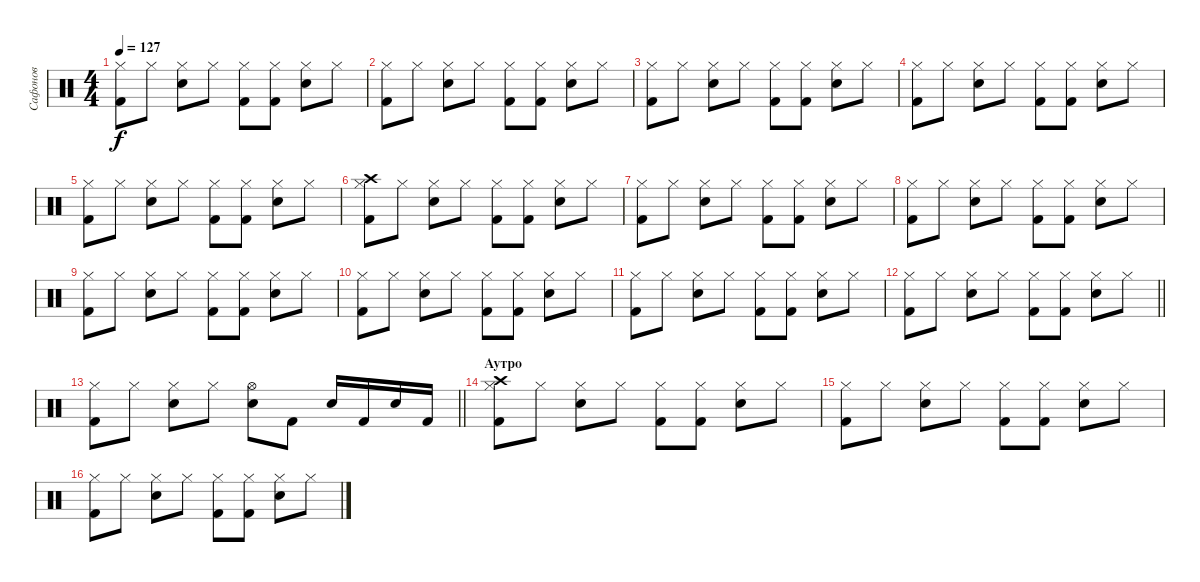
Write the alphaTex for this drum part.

\track ("Сафонов" "Сафонов") {instrument percussion}
\staff {score}
\articulation defaults
\ts (4 4)
\tempo 127
\clef neutral
\ks c
("Hi-Hat (closed)" "Kick (hit) 2").8{dy f} "Hi-Hat (closed)".8 ("Hi-Hat (closed)" "Electric Snare (hit)").8 "Hi-Hat (closed)".8 ("Hi-Hat (closed)" "Kick (hit) 2").8 ("Hi-Hat (closed)" "Kick (hit) 2").8 ("Hi-Hat (closed)" "Electric Snare (hit)").8 "Hi-Hat (closed)".8 |
("Hi-Hat (closed)" "Kick (hit) 2").8 "Hi-Hat (closed)".8 ("Hi-Hat (closed)" "Electric Snare (hit)").8 "Hi-Hat (closed)".8 ("Hi-Hat (closed)" "Kick (hit) 2").8 ("Hi-Hat (closed)" "Kick (hit) 2").8 ("Hi-Hat (closed)" "Electric Snare (hit)").8 "Hi-Hat (closed)".8 |
("Hi-Hat (closed)" "Kick (hit) 2").8 "Hi-Hat (closed)".8 ("Hi-Hat (closed)" "Electric Snare (hit)").8 "Hi-Hat (closed)".8 ("Hi-Hat (closed)" "Kick (hit) 2").8 ("Hi-Hat (closed)" "Kick (hit) 2").8 ("Hi-Hat (closed)" "Electric Snare (hit)").8 "Hi-Hat (closed)".8 |
("Hi-Hat (closed)" "Kick (hit) 2").8 "Hi-Hat (closed)".8 ("Hi-Hat (closed)" "Electric Snare (hit)").8 "Hi-Hat (closed)".8 ("Hi-Hat (closed)" "Kick (hit) 2").8 ("Hi-Hat (closed)" "Kick (hit) 2").8 ("Hi-Hat (closed)" "Electric Snare (hit)").8 "Hi-Hat (closed)".8 |
("Hi-Hat (closed)" "Kick (hit) 2").8 "Hi-Hat (closed)".8 ("Hi-Hat (closed)" "Electric Snare (hit)").8 "Hi-Hat (closed)".8 ("Hi-Hat (closed)" "Kick (hit) 2").8 ("Hi-Hat (closed)" "Kick (hit) 2").8 ("Hi-Hat (closed)" "Electric Snare (hit)").8 "Hi-Hat (closed)".8 |
("Crash high (hit)" "Hi-Hat (closed)" "Kick (hit) 2").8 "Hi-Hat (closed)".8 ("Hi-Hat (closed)" "Electric Snare (hit)").8 "Hi-Hat (closed)".8 ("Hi-Hat (closed)" "Kick (hit) 2").8 ("Hi-Hat (closed)" "Kick (hit) 2").8 ("Hi-Hat (closed)" "Electric Snare (hit)").8 "Hi-Hat (closed)".8 |
("Hi-Hat (closed)" "Kick (hit) 2").8 "Hi-Hat (closed)".8 ("Hi-Hat (closed)" "Electric Snare (hit)").8 "Hi-Hat (closed)".8 ("Hi-Hat (closed)" "Kick (hit) 2").8 ("Hi-Hat (closed)" "Kick (hit) 2").8 ("Hi-Hat (closed)" "Electric Snare (hit)").8 "Hi-Hat (closed)".8 |
("Hi-Hat (closed)" "Kick (hit) 2").8 "Hi-Hat (closed)".8 ("Hi-Hat (closed)" "Electric Snare (hit)").8 "Hi-Hat (closed)".8 ("Hi-Hat (closed)" "Kick (hit) 2").8 ("Hi-Hat (closed)" "Kick (hit) 2").8 ("Hi-Hat (closed)" "Electric Snare (hit)").8 "Hi-Hat (closed)".8 |
("Hi-Hat (closed)" "Kick (hit) 2").8 "Hi-Hat (closed)".8 ("Hi-Hat (closed)" "Electric Snare (hit)").8 "Hi-Hat (closed)".8 ("Hi-Hat (closed)" "Kick (hit) 2").8 ("Hi-Hat (closed)" "Kick (hit) 2").8 ("Hi-Hat (closed)" "Electric Snare (hit)").8 "Hi-Hat (closed)".8 |
("Hi-Hat (closed)" "Kick (hit) 2").8 "Hi-Hat (closed)".8 ("Hi-Hat (closed)" "Electric Snare (hit)").8 "Hi-Hat (closed)".8 ("Hi-Hat (closed)" "Kick (hit) 2").8 ("Hi-Hat (closed)" "Kick (hit) 2").8 ("Hi-Hat (closed)" "Electric Snare (hit)").8 "Hi-Hat (closed)".8 |
("Hi-Hat (closed)" "Kick (hit) 2").8 "Hi-Hat (closed)".8 ("Hi-Hat (closed)" "Electric Snare (hit)").8 "Hi-Hat (closed)".8 ("Hi-Hat (closed)" "Kick (hit) 2").8 ("Hi-Hat (closed)" "Kick (hit) 2").8 ("Hi-Hat (closed)" "Electric Snare (hit)").8 "Hi-Hat (closed)".8 |
\barLineRight lightlight
("Hi-Hat (closed)" "Kick (hit) 2").8 "Hi-Hat (closed)".8 ("Hi-Hat (closed)" "Electric Snare (hit)").8 "Hi-Hat (closed)".8 ("Hi-Hat (closed)" "Kick (hit) 2").8 ("Hi-Hat (closed)" "Kick (hit) 2").8 ("Hi-Hat (closed)" "Electric Snare (hit)").8 "Hi-Hat (closed)".8 |
\barLineRight lightlight
("Hi-Hat (closed)" "Kick (hit) 2").8 "Hi-Hat (closed)".8 ("Hi-Hat (closed)" "Electric Snare (hit)").8 "Hi-Hat (closed)".8 ("Hi-Hat (open)" "Electric Snare (hit)").8 "Kick (hit) 2".8 "Electric Snare (hit)".16 "Kick (hit) 2".16 "Electric Snare (hit)".16 "Kick (hit) 2".16 |
\section ("" "Аутро")
("Crash high (hit)" "Hi-Hat (closed)" "Kick (hit) 2").8 "Hi-Hat (closed)".8 ("Hi-Hat (closed)" "Electric Snare (hit)").8 "Hi-Hat (closed)".8 ("Hi-Hat (closed)" "Kick (hit) 2").8 ("Hi-Hat (closed)" "Kick (hit) 2").8 ("Hi-Hat (closed)" "Electric Snare (hit)").8 "Hi-Hat (closed)".8 |
("Hi-Hat (closed)" "Kick (hit) 2").8 "Hi-Hat (closed)".8 ("Hi-Hat (closed)" "Electric Snare (hit)").8 "Hi-Hat (closed)".8 ("Hi-Hat (closed)" "Kick (hit) 2").8 ("Hi-Hat (closed)" "Kick (hit) 2").8 ("Hi-Hat (closed)" "Electric Snare (hit)").8 "Hi-Hat (closed)".8 |
("Hi-Hat (closed)" "Kick (hit) 2").8 "Hi-Hat (closed)".8 ("Hi-Hat (closed)" "Electric Snare (hit)").8 "Hi-Hat (closed)".8 ("Hi-Hat (closed)" "Kick (hit) 2").8 ("Hi-Hat (closed)" "Kick (hit) 2").8 ("Hi-Hat (closed)" "Electric Snare (hit)").8 "Hi-Hat (closed)".8
